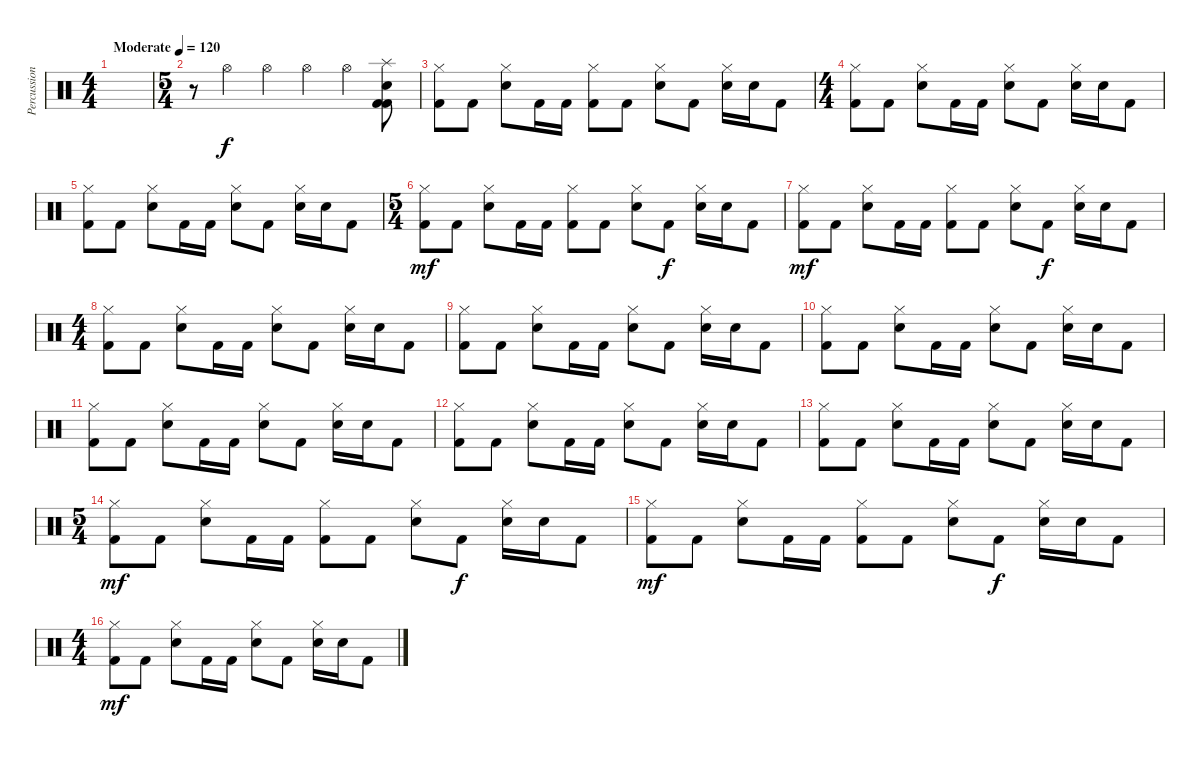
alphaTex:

\track ("Percussion" "Percussion") {instrument percussion}
\staff {score}
\articulation defaults
\ts (4 4)
\tempo (120 "Moderate")
\clef neutral
\ks c
|
\ts (5 4)
r.8 "Hi-Hat (open)".4 "Hi-Hat (open)".4 "Hi-Hat (open)".4 "Hi-Hat (open)".4 ("Splash (hit)" "Snare (hit) 2" "Kick (hit) 2" "Kick (hit) 2").8 |
("Hi-Hat (closed)" "Kick (hit) 2").8 "Kick (hit) 2".8 ("Hi-Hat (closed)" "Snare (hit) 2").8 "Kick (hit) 2".16 "Kick (hit) 2".16 ("Hi-Hat (closed)" "Kick (hit) 2").8 "Kick (hit) 2".8 ("Hi-Hat (closed)" "Snare (hit) 2").8 "Kick (hit) 2".8{dy f} ("Hi-Hat (closed)" "Snare (hit) 2").16 "Snare (hit) 2".16 "Kick (hit) 2".8 |
\ts (4 4)
("Hi-Hat (closed)" "Kick (hit) 2").8 "Kick (hit) 2".8 ("Hi-Hat (closed)" "Snare (hit) 2").8 "Kick (hit) 2".16 "Kick (hit) 2".16 ("Hi-Hat (closed)" "Snare (hit) 2").8 "Kick (hit) 2".8 ("Hi-Hat (closed)" "Snare (hit) 2").16 "Snare (hit) 2".16 "Kick (hit) 2".8 |
("Hi-Hat (closed)" "Kick (hit) 2").8 "Kick (hit) 2".8 ("Hi-Hat (closed)" "Snare (hit) 2").8 "Kick (hit) 2".16 "Kick (hit) 2".16 ("Hi-Hat (closed)" "Snare (hit) 2").8 "Kick (hit) 2".8 ("Hi-Hat (closed)" "Snare (hit) 2").16 "Snare (hit) 2".16 "Kick (hit) 2".8 |
\ts (5 4)
("Hi-Hat (closed)" "Kick (hit) 2").8{dy mf} "Kick (hit) 2".8 ("Hi-Hat (closed)" "Snare (hit) 2").8 "Kick (hit) 2".16 "Kick (hit) 2".16 ("Hi-Hat (closed)" "Kick (hit) 2").8 "Kick (hit) 2".8 ("Hi-Hat (closed)" "Snare (hit) 2").8 "Kick (hit) 2".8{dy f} ("Hi-Hat (closed)" "Snare (hit) 2").16 "Snare (hit) 2".16 "Kick (hit) 2".8 |
("Hi-Hat (closed)" "Kick (hit) 2").8{dy mf} "Kick (hit) 2".8 ("Hi-Hat (closed)" "Snare (hit) 2").8 "Kick (hit) 2".16 "Kick (hit) 2".16 ("Hi-Hat (closed)" "Kick (hit) 2").8 "Kick (hit) 2".8 ("Hi-Hat (closed)" "Snare (hit) 2").8 "Kick (hit) 2".8{dy f} ("Hi-Hat (closed)" "Snare (hit) 2").16 "Snare (hit) 2".16 "Kick (hit) 2".8 |
\ts (4 4)
("Hi-Hat (closed)" "Kick (hit) 2").8 "Kick (hit) 2".8 ("Hi-Hat (closed)" "Snare (hit) 2").8 "Kick (hit) 2".16 "Kick (hit) 2".16 ("Hi-Hat (closed)" "Snare (hit) 2").8 "Kick (hit) 2".8 ("Hi-Hat (closed)" "Snare (hit) 2").16 "Snare (hit) 2".16 "Kick (hit) 2".8 |
("Hi-Hat (closed)" "Kick (hit) 2").8 "Kick (hit) 2".8 ("Hi-Hat (closed)" "Snare (hit) 2").8 "Kick (hit) 2".16 "Kick (hit) 2".16 ("Hi-Hat (closed)" "Snare (hit) 2").8 "Kick (hit) 2".8 ("Hi-Hat (closed)" "Snare (hit) 2").16 "Snare (hit) 2".16 "Kick (hit) 2".8 |
("Hi-Hat (closed)" "Kick (hit) 2").8 "Kick (hit) 2".8 ("Hi-Hat (closed)" "Snare (hit) 2").8 "Kick (hit) 2".16 "Kick (hit) 2".16 ("Hi-Hat (closed)" "Snare (hit) 2").8 "Kick (hit) 2".8 ("Hi-Hat (closed)" "Snare (hit) 2").16 "Snare (hit) 2".16 "Kick (hit) 2".8 |
("Hi-Hat (closed)" "Kick (hit) 2").8 "Kick (hit) 2".8 ("Hi-Hat (closed)" "Snare (hit) 2").8 "Kick (hit) 2".16 "Kick (hit) 2".16 ("Hi-Hat (closed)" "Snare (hit) 2").8 "Kick (hit) 2".8 ("Hi-Hat (closed)" "Snare (hit) 2").16 "Snare (hit) 2".16 "Kick (hit) 2".8 |
("Hi-Hat (closed)" "Kick (hit) 2").8 "Kick (hit) 2".8 ("Hi-Hat (closed)" "Snare (hit) 2").8 "Kick (hit) 2".16 "Kick (hit) 2".16 ("Hi-Hat (closed)" "Snare (hit) 2").8 "Kick (hit) 2".8 ("Hi-Hat (closed)" "Snare (hit) 2").16 "Snare (hit) 2".16 "Kick (hit) 2".8 |
("Hi-Hat (closed)" "Kick (hit) 2").8 "Kick (hit) 2".8 ("Hi-Hat (closed)" "Snare (hit) 2").8 "Kick (hit) 2".16 "Kick (hit) 2".16 ("Hi-Hat (closed)" "Snare (hit) 2").8 "Kick (hit) 2".8 ("Hi-Hat (closed)" "Snare (hit) 2").16 "Snare (hit) 2".16 "Kick (hit) 2".8 |
\ts (5 4)
("Hi-Hat (closed)" "Kick (hit) 2").8{dy mf} "Kick (hit) 2".8 ("Hi-Hat (closed)" "Snare (hit) 2").8 "Kick (hit) 2".16 "Kick (hit) 2".16 ("Hi-Hat (closed)" "Kick (hit) 2").8 "Kick (hit) 2".8 ("Hi-Hat (closed)" "Snare (hit) 2").8 "Kick (hit) 2".8{dy f} ("Hi-Hat (closed)" "Snare (hit) 2").16 "Snare (hit) 2".16 "Kick (hit) 2".8 |
("Hi-Hat (closed)" "Kick (hit) 2").8{dy mf} "Kick (hit) 2".8 ("Hi-Hat (closed)" "Snare (hit) 2").8 "Kick (hit) 2".16 "Kick (hit) 2".16 ("Hi-Hat (closed)" "Kick (hit) 2").8 "Kick (hit) 2".8 ("Hi-Hat (closed)" "Snare (hit) 2").8 "Kick (hit) 2".8{dy f} ("Hi-Hat (closed)" "Snare (hit) 2").16 "Snare (hit) 2".16 "Kick (hit) 2".8 |
\ts (4 4)
("Hi-Hat (closed)" "Kick (hit) 2").8{dy mf} "Kick (hit) 2".8 ("Hi-Hat (closed)" "Snare (hit) 2").8 "Kick (hit) 2".16 "Kick (hit) 2".16 ("Hi-Hat (closed)" "Snare (hit) 2").8 "Kick (hit) 2".8 ("Hi-Hat (closed)" "Snare (hit) 2").16 "Snare (hit) 2".16 "Kick (hit) 2".8
